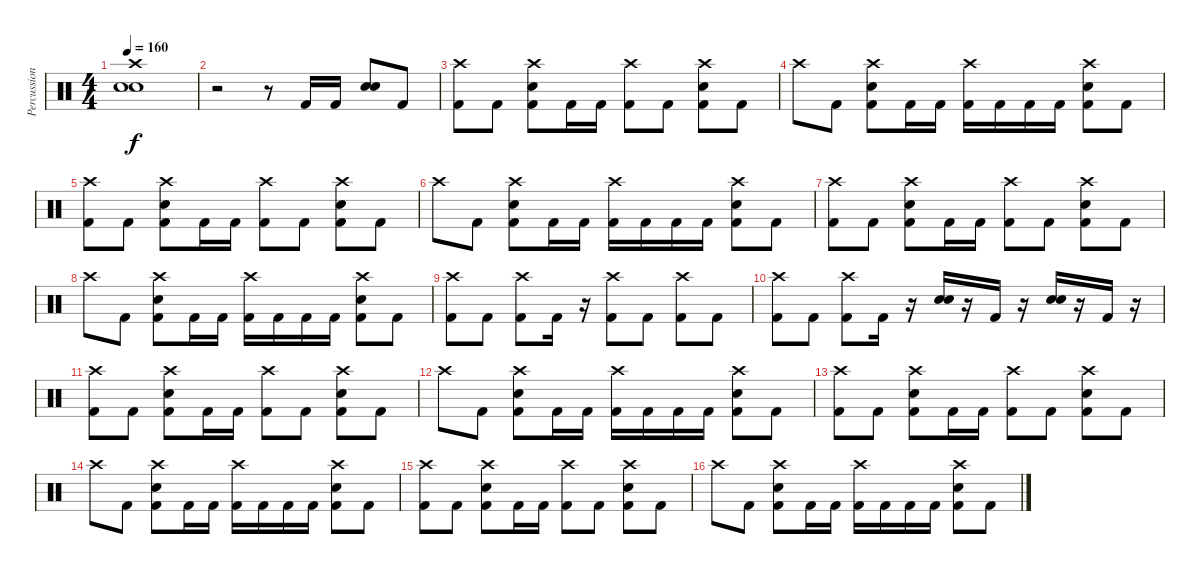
\track ("Percussioni" "Percussion") {instrument percussion}
\staff {score}
\articulation defaults
\ts (4 4)
\tempo 160
\clef neutral
\ks c
("Crash high (hit)" "Electric Snare (hit)" "Electric Snare (hit)").1{dy f} |
r.2 r.8 "Kick (hit) 2".16 "Kick (hit) 2".16 ("Electric Snare (hit)" "Electric Snare (hit)").8 "Kick (hit) 2".8 |
("Crash high (hit)" "Kick (hit) 2").8 "Kick (hit) 2".8 ("Crash high (hit)" "Electric Snare (hit)" "Kick (hit) 2").8 "Kick (hit) 2".16 "Kick (hit) 2".16 ("Crash high (hit)" "Kick (hit) 2").8 "Kick (hit) 2".8 ("Crash high (hit)" "Electric Snare (hit)" "Kick (hit) 2").8 "Kick (hit) 2".8 |
"Crash high (hit)".8 "Kick (hit) 2".8 ("Crash high (hit)" "Electric Snare (hit)" "Kick (hit) 2").8 "Kick (hit) 2".16 "Kick (hit) 2".16 ("Crash high (hit)" "Kick (hit) 2").16 "Kick (hit) 2".16 "Kick (hit) 2".16 "Kick (hit) 2".16 ("Crash high (hit)" "Electric Snare (hit)" "Kick (hit) 2").8 "Kick (hit) 2".8 |
("Crash high (hit)" "Kick (hit) 2").8 "Kick (hit) 2".8 ("Crash high (hit)" "Electric Snare (hit)" "Kick (hit) 2").8 "Kick (hit) 2".16 "Kick (hit) 2".16 ("Crash high (hit)" "Kick (hit) 2").8 "Kick (hit) 2".8 ("Crash high (hit)" "Electric Snare (hit)" "Kick (hit) 2").8 "Kick (hit) 2".8 |
"Crash high (hit)".8 "Kick (hit) 2".8 ("Crash high (hit)" "Electric Snare (hit)" "Kick (hit) 2").8 "Kick (hit) 2".16 "Kick (hit) 2".16 ("Crash high (hit)" "Kick (hit) 2").16 "Kick (hit) 2".16 "Kick (hit) 2".16 "Kick (hit) 2".16 ("Crash high (hit)" "Electric Snare (hit)" "Kick (hit) 2").8 "Kick (hit) 2".8 |
("Crash high (hit)" "Kick (hit) 2").8 "Kick (hit) 2".8 ("Crash high (hit)" "Electric Snare (hit)" "Kick (hit) 2").8 "Kick (hit) 2".16 "Kick (hit) 2".16 ("Crash high (hit)" "Kick (hit) 2").8 "Kick (hit) 2".8 ("Crash high (hit)" "Electric Snare (hit)" "Kick (hit) 2").8 "Kick (hit) 2".8 |
"Crash high (hit)".8 "Kick (hit) 2".8 ("Crash high (hit)" "Electric Snare (hit)" "Kick (hit) 2").8 "Kick (hit) 2".16 "Kick (hit) 2".16 ("Crash high (hit)" "Kick (hit) 2").16 "Kick (hit) 2".16 "Kick (hit) 2".16 "Kick (hit) 2".16 ("Crash high (hit)" "Electric Snare (hit)" "Kick (hit) 2").8 "Kick (hit) 2".8 |
("Crash high (hit)" "Kick (hit) 2").8 "Kick (hit) 2".8 ("Crash high (hit)" "Kick (hit) 2").8 "Kick (hit) 2".16 r.16 ("Crash high (hit)" "Kick (hit) 2").8 "Kick (hit) 2".8 ("Crash high (hit)" "Kick (hit) 2").8 "Kick (hit) 2".8 |
("Crash high (hit)" "Kick (hit) 2").8 "Kick (hit) 2".8 ("Crash high (hit)" "Kick (hit) 2").8 "Kick (hit) 2".16 r.16 ("Electric Snare (hit)" "Electric Snare (hit)").16 r.16 "Kick (hit) 2".16 r.16 ("Electric Snare (hit)" "Electric Snare (hit)").16 r.16 "Kick (hit) 2".16 r.16 |
("Crash high (hit)" "Kick (hit) 2").8 "Kick (hit) 2".8 ("Crash high (hit)" "Electric Snare (hit)" "Kick (hit) 2").8 "Kick (hit) 2".16 "Kick (hit) 2".16 ("Crash high (hit)" "Kick (hit) 2").8 "Kick (hit) 2".8 ("Crash high (hit)" "Electric Snare (hit)" "Kick (hit) 2").8 "Kick (hit) 2".8 |
"Crash high (hit)".8 "Kick (hit) 2".8 ("Crash high (hit)" "Electric Snare (hit)" "Kick (hit) 2").8 "Kick (hit) 2".16 "Kick (hit) 2".16 ("Crash high (hit)" "Kick (hit) 2").16 "Kick (hit) 2".16 "Kick (hit) 2".16 "Kick (hit) 2".16 ("Crash high (hit)" "Electric Snare (hit)" "Kick (hit) 2").8 "Kick (hit) 2".8 |
("Crash high (hit)" "Kick (hit) 2").8 "Kick (hit) 2".8 ("Crash high (hit)" "Electric Snare (hit)" "Kick (hit) 2").8 "Kick (hit) 2".16 "Kick (hit) 2".16 ("Crash high (hit)" "Kick (hit) 2").8 "Kick (hit) 2".8 ("Crash high (hit)" "Electric Snare (hit)" "Kick (hit) 2").8 "Kick (hit) 2".8 |
"Crash high (hit)".8 "Kick (hit) 2".8 ("Crash high (hit)" "Electric Snare (hit)" "Kick (hit) 2").8 "Kick (hit) 2".16 "Kick (hit) 2".16 ("Crash high (hit)" "Kick (hit) 2").16 "Kick (hit) 2".16 "Kick (hit) 2".16 "Kick (hit) 2".16 ("Crash high (hit)" "Electric Snare (hit)" "Kick (hit) 2").8 "Kick (hit) 2".8 |
("Crash high (hit)" "Kick (hit) 2").8 "Kick (hit) 2".8 ("Crash high (hit)" "Electric Snare (hit)" "Kick (hit) 2").8 "Kick (hit) 2".16 "Kick (hit) 2".16 ("Crash high (hit)" "Kick (hit) 2").8 "Kick (hit) 2".8 ("Crash high (hit)" "Electric Snare (hit)" "Kick (hit) 2").8 "Kick (hit) 2".8 |
"Crash high (hit)".8 "Kick (hit) 2".8 ("Crash high (hit)" "Electric Snare (hit)" "Kick (hit) 2").8 "Kick (hit) 2".16 "Kick (hit) 2".16 ("Crash high (hit)" "Kick (hit) 2").16 "Kick (hit) 2".16 "Kick (hit) 2".16 "Kick (hit) 2".16 ("Crash high (hit)" "Electric Snare (hit)" "Kick (hit) 2").8 "Kick (hit) 2".8
